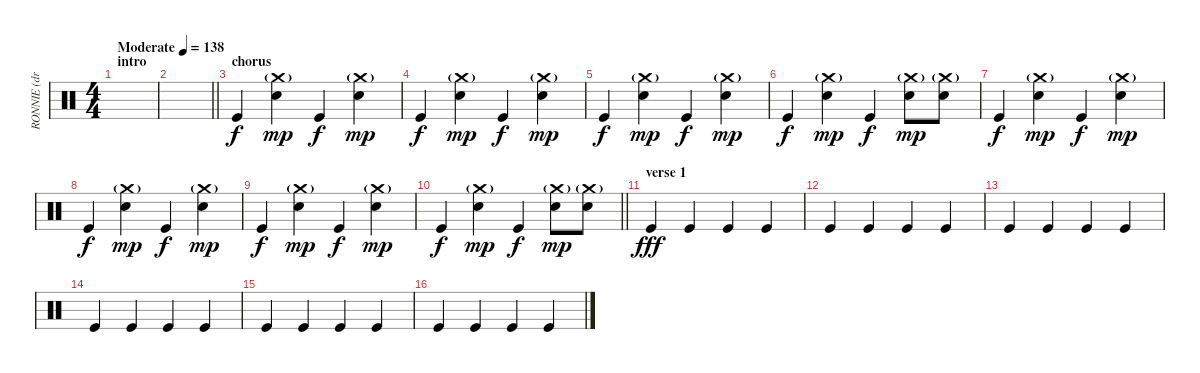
\track ("RONNIE (drums)" "RONNIE (dr") {instrument percussion}
\staff {score}
\articulation defaults
\ts (4 4)
\section ("" "intro")
\tempo (138 "Moderate")
\clef neutral
\ks c
|
\barLineRight lightlight
|
\section ("" "chorus")
"Kick (hit)".4 ("Electric Snare (hit)" "Crash medium (hit)"{g}).4{dy mp} "Kick (hit)".4{dy f} ("Electric Snare (hit)" "Crash medium (hit)"{g}).4{dy mp} |
"Kick (hit)".4{dy f} ("Electric Snare (hit)" "Crash medium (hit)"{g}).4{dy mp} "Kick (hit)".4{dy f} ("Electric Snare (hit)" "Crash medium (hit)"{g}).4{dy mp} |
"Kick (hit)".4{dy f} ("Electric Snare (hit)" "Crash medium (hit)"{g}).4{dy mp} "Kick (hit)".4{dy f} ("Electric Snare (hit)" "Crash medium (hit)"{g}).4{dy mp} |
"Kick (hit)".4{dy f} ("Electric Snare (hit)" "Crash medium (hit)"{g}).4{dy mp} "Kick (hit)".4{dy f} ("Electric Snare (hit)" "Crash medium (hit)"{g}).8{dy mp} ("Electric Snare (hit)" "Crash medium (hit)"{g}).8 |
"Kick (hit)".4{dy f} ("Electric Snare (hit)" "Crash medium (hit)"{g}).4{dy mp} "Kick (hit)".4{dy f} ("Electric Snare (hit)" "Crash medium (hit)"{g}).4{dy mp} |
"Kick (hit)".4{dy f} ("Electric Snare (hit)" "Crash medium (hit)"{g}).4{dy mp} "Kick (hit)".4{dy f} ("Electric Snare (hit)" "Crash medium (hit)"{g}).4{dy mp} |
"Kick (hit)".4{dy f} ("Electric Snare (hit)" "Crash medium (hit)"{g}).4{dy mp} "Kick (hit)".4{dy f} ("Electric Snare (hit)" "Crash medium (hit)"{g}).4{dy mp} |
\barLineRight lightlight "Kick (hit)".4{dy f}
("Electric Snare (hit)" "Crash medium (hit)"{g}).4{dy mp} "Kick (hit)".4{dy f} ("Electric Snare (hit)" "Crash medium (hit)"{g}).8{dy mp} ("Electric Snare (hit)" "Crash medium (hit)"{g}).8 |
\section ("" "verse 1")
"Kick (hit)".4{dy fff} "Kick (hit)".4 "Kick (hit)".4 "Kick (hit)".4 |
"Kick (hit)".4 "Kick (hit)".4 "Kick (hit)".4 "Kick (hit)".4 |
"Kick (hit)".4 "Kick (hit)".4 "Kick (hit)".4 "Kick (hit)".4 |
"Kick (hit)".4 "Kick (hit)".4 "Kick (hit)".4 "Kick (hit)".4 |
"Kick (hit)".4 "Kick (hit)".4 "Kick (hit)".4 "Kick (hit)".4 |
"Kick (hit)".4 "Kick (hit)".4 "Kick (hit)".4 "Kick (hit)".4
